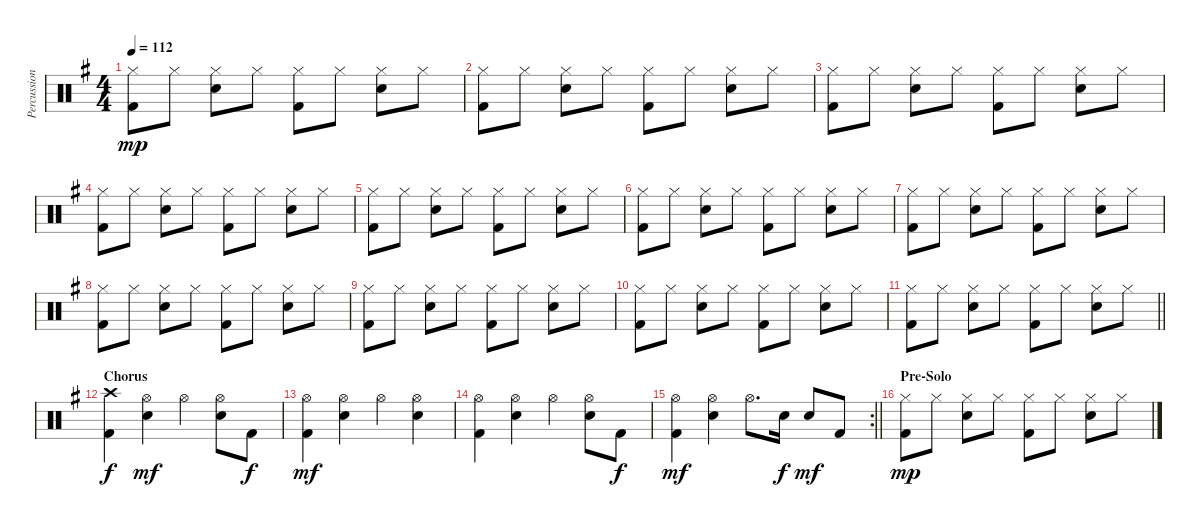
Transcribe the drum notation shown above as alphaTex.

\track ("Percussion" "Percussion") {instrument percussion}
\staff {score}
\articulation defaults
\ts (4 4)
\tempo 112
\clef neutral
\ks g
("Hi-Hat (closed)" "Kick (hit) 2").8{dy mp} "Hi-Hat (closed)".8 ("Hi-Hat (closed)" "Snare (hit) 2").8 "Hi-Hat (closed)".8 ("Hi-Hat (closed)" "Kick (hit) 2").8 "Hi-Hat (closed)".8 ("Hi-Hat (closed)" "Snare (hit) 2").8 "Hi-Hat (closed)".8 |
("Hi-Hat (closed)" "Kick (hit) 2").8 "Hi-Hat (closed)".8 ("Hi-Hat (closed)" "Snare (hit) 2").8 "Hi-Hat (closed)".8 ("Hi-Hat (closed)" "Kick (hit) 2").8 "Hi-Hat (closed)".8 ("Hi-Hat (closed)" "Snare (hit) 2").8 "Hi-Hat (closed)".8 |
("Hi-Hat (closed)" "Kick (hit) 2").8 "Hi-Hat (closed)".8 ("Hi-Hat (closed)" "Snare (hit) 2").8 "Hi-Hat (closed)".8 ("Hi-Hat (closed)" "Kick (hit) 2").8 "Hi-Hat (closed)".8 ("Hi-Hat (closed)" "Snare (hit) 2").8 "Hi-Hat (closed)".8 |
("Hi-Hat (closed)" "Kick (hit) 2").8 "Hi-Hat (closed)".8 ("Hi-Hat (closed)" "Snare (hit) 2").8 "Hi-Hat (closed)".8 ("Hi-Hat (closed)" "Kick (hit) 2").8 "Hi-Hat (closed)".8 ("Hi-Hat (closed)" "Snare (hit) 2").8 "Hi-Hat (closed)".8 |
("Hi-Hat (closed)" "Kick (hit) 2").8 "Hi-Hat (closed)".8 ("Hi-Hat (closed)" "Snare (hit) 2").8 "Hi-Hat (closed)".8 ("Hi-Hat (closed)" "Kick (hit) 2").8 "Hi-Hat (closed)".8 ("Hi-Hat (closed)" "Snare (hit) 2").8 "Hi-Hat (closed)".8 |
("Hi-Hat (closed)" "Kick (hit) 2").8 "Hi-Hat (closed)".8 ("Hi-Hat (closed)" "Snare (hit) 2").8 "Hi-Hat (closed)".8 ("Hi-Hat (closed)" "Kick (hit) 2").8 "Hi-Hat (closed)".8 ("Hi-Hat (closed)" "Snare (hit) 2").8 "Hi-Hat (closed)".8 |
("Hi-Hat (closed)" "Kick (hit) 2").8 "Hi-Hat (closed)".8 ("Hi-Hat (closed)" "Snare (hit) 2").8 "Hi-Hat (closed)".8 ("Hi-Hat (closed)" "Kick (hit) 2").8 "Hi-Hat (closed)".8 ("Hi-Hat (closed)" "Snare (hit) 2").8 "Hi-Hat (closed)".8 |
("Hi-Hat (closed)" "Kick (hit) 2").8 "Hi-Hat (closed)".8 ("Hi-Hat (closed)" "Snare (hit) 2").8 "Hi-Hat (closed)".8 ("Hi-Hat (closed)" "Kick (hit) 2").8 "Hi-Hat (closed)".8 ("Hi-Hat (closed)" "Snare (hit) 2").8 "Hi-Hat (closed)".8 |
("Hi-Hat (closed)" "Kick (hit) 2").8 "Hi-Hat (closed)".8 ("Hi-Hat (closed)" "Snare (hit) 2").8 "Hi-Hat (closed)".8 ("Hi-Hat (closed)" "Kick (hit) 2").8 "Hi-Hat (closed)".8 ("Hi-Hat (closed)" "Snare (hit) 2").8 "Hi-Hat (closed)".8 |
("Hi-Hat (closed)" "Kick (hit) 2").8 "Hi-Hat (closed)".8 ("Hi-Hat (closed)" "Snare (hit) 2").8 "Hi-Hat (closed)".8 ("Hi-Hat (closed)" "Kick (hit) 2").8 "Hi-Hat (closed)".8 ("Hi-Hat (closed)" "Snare (hit) 2").8 "Hi-Hat (closed)".8 |
\barLineRight lightlight
("Hi-Hat (closed)" "Kick (hit) 2").8 "Hi-Hat (closed)".8 ("Hi-Hat (closed)" "Snare (hit) 2").8 "Hi-Hat (closed)".8 ("Hi-Hat (closed)" "Kick (hit) 2").8 "Hi-Hat (closed)".8 ("Hi-Hat (closed)" "Snare (hit) 2").8 "Hi-Hat (closed)".8 |
\section ("" "Chorus")
("Crash high (hit)" "Kick (hit) 2").4{dy f} ("Hi-Hat (open)" "Snare (hit) 2").4{dy mf} "Hi-Hat (open)".4 ("Hi-Hat (open)" "Snare (hit) 2").8 "Kick (hit) 2".8{dy f} |
("Hi-Hat (open)" "Kick (hit) 2").4{dy mf} ("Hi-Hat (open)" "Snare (hit) 2").4 "Hi-Hat (open)".4 ("Hi-Hat (open)" "Snare (hit) 2").4 |
("Hi-Hat (open)" "Kick (hit) 2").4 ("Hi-Hat (open)" "Snare (hit) 2").4 "Hi-Hat (open)".4 ("Hi-Hat (open)" "Snare (hit) 2").8 "Kick (hit) 2".8{dy f} |
\rc 2
\barLineRight lightlight
("Hi-Hat (open)" "Kick (hit) 2").4{dy mf} ("Hi-Hat (open)" "Snare (hit) 2").4 "Hi-Hat (open)".8{d} "Snare (hit) 2".16{dy f} "Snare (hit) 2".8{dy mf} "Kick (hit) 2".8 |
\section ("" "Pre-Solo")
("Hi-Hat (closed)" "Kick (hit) 2").8{dy mp} "Hi-Hat (closed)".8 ("Hi-Hat (closed)" "Snare (hit) 2").8 "Hi-Hat (closed)".8 ("Hi-Hat (closed)" "Kick (hit) 2").8 "Hi-Hat (closed)".8 ("Hi-Hat (closed)" "Snare (hit) 2").8 "Hi-Hat (closed)".8
